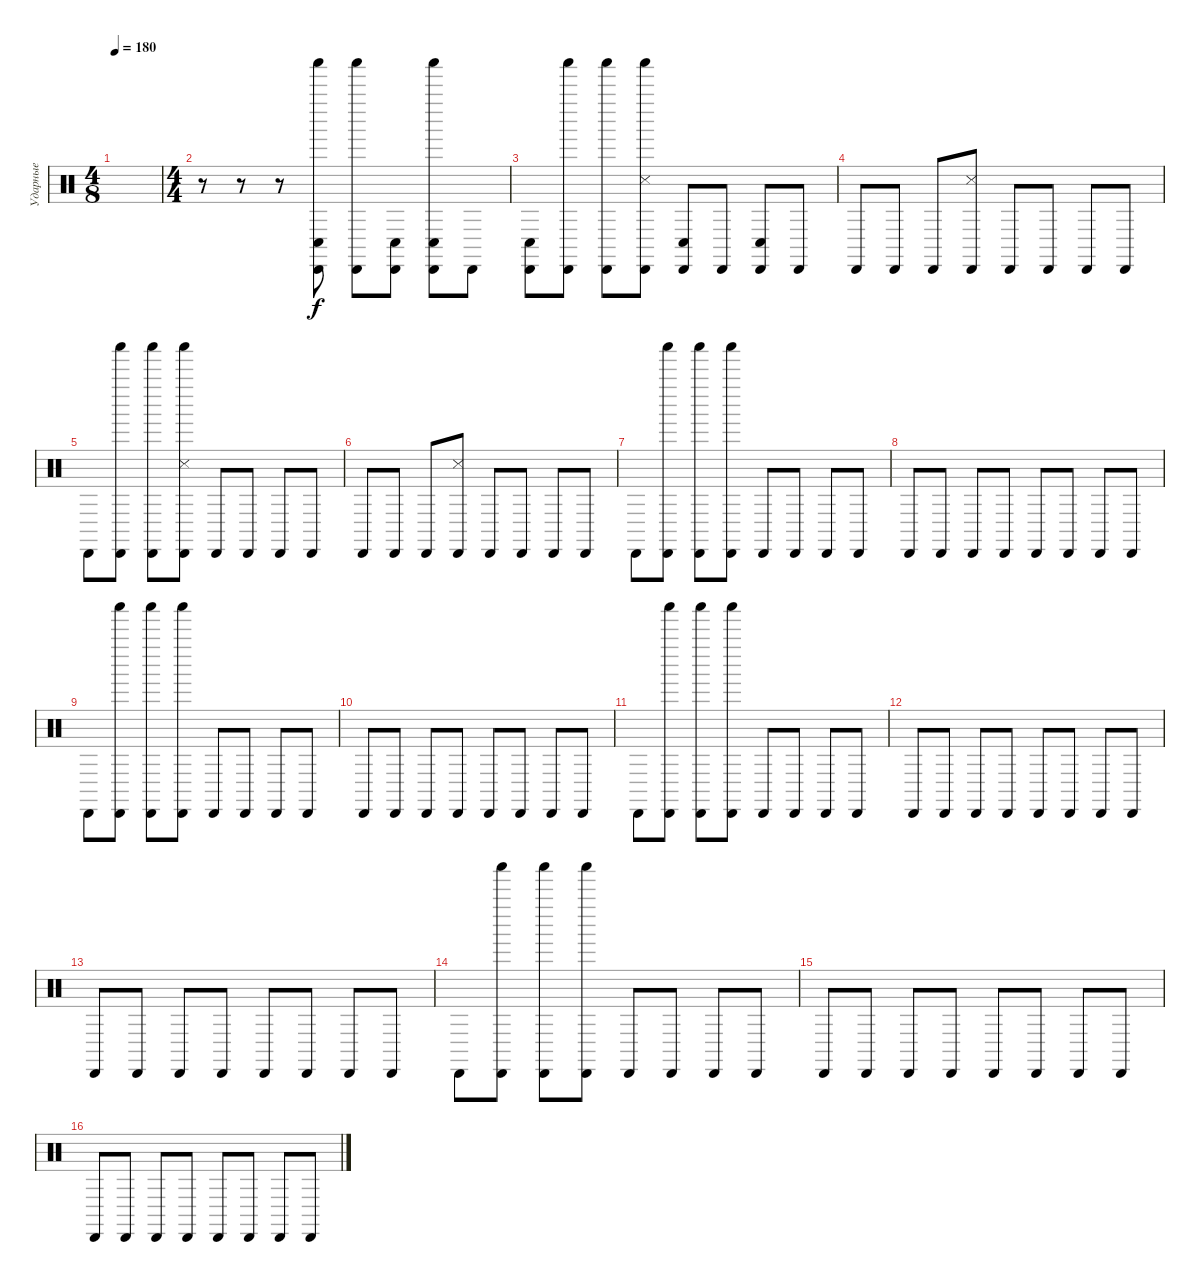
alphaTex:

\track ("Ударные" "Ударные") {instrument percussion}
\staff {score}
\articulation defaults
\ts (4 8)
\tempo 180
\clef neutral
\ks c
|
\ts (4 4)
r.8 r.8 r.8 ("Shaker (hit)" "Cabasa (hit)" "Conga low (hit)").8 ("Shaker (hit)" "Cabasa (hit)").8 ("Cabasa (hit)" "Conga low (hit)").8 ("Shaker (hit)" "Cabasa (hit)" "Conga low (hit)").8 "Cabasa (hit)".8 |
("Cabasa (hit)" "Conga low (hit)").8 ("Shaker (hit)" "Cabasa (hit)").8 ("Shaker (hit)" "Cabasa (hit)").8 ("Shaker (hit)" "Cabasa (hit)" "Snare (side stick) 3").8 ("Cabasa (hit)" "Conga low (hit)").8 "Cabasa (hit)".8 ("Cabasa (hit)" "Conga low (hit)").8 "Cabasa (hit)".8 |
"Cabasa (hit)".8 "Cabasa (hit)".8 "Cabasa (hit)".8 ("Cabasa (hit)" "Snare (side stick) 3").8 "Cabasa (hit)".8 "Cabasa (hit)".8 "Cabasa (hit)".8 "Cabasa (hit)".8 |
"Cabasa (hit)".8 ("Shaker (hit)" "Cabasa (hit)").8 ("Shaker (hit)" "Cabasa (hit)").8 ("Shaker (hit)" "Cabasa (hit)" "Snare (side stick) 3").8 "Cabasa (hit)".8 "Cabasa (hit)".8 "Cabasa (hit)".8 "Cabasa (hit)".8 |
"Cabasa (hit)".8 "Cabasa (hit)".8 "Cabasa (hit)".8 ("Cabasa (hit)" "Snare (side stick) 3").8 "Cabasa (hit)".8 "Cabasa (hit)".8 "Cabasa (hit)".8 "Cabasa (hit)".8 |
"Cabasa (hit)".8 ("Shaker (hit)" "Cabasa (hit)").8 ("Shaker (hit)" "Cabasa (hit)").8 ("Shaker (hit)" "Cabasa (hit)").8 "Cabasa (hit)".8 "Cabasa (hit)".8 "Cabasa (hit)".8 "Cabasa (hit)".8 |
"Cabasa (hit)".8 "Cabasa (hit)".8 "Cabasa (hit)".8 "Cabasa (hit)".8 "Cabasa (hit)".8 "Cabasa (hit)".8 "Cabasa (hit)".8 "Cabasa (hit)".8 |
"Cabasa (hit)".8 ("Shaker (hit)" "Cabasa (hit)").8 ("Shaker (hit)" "Cabasa (hit)").8 ("Shaker (hit)" "Cabasa (hit)").8 "Cabasa (hit)".8 "Cabasa (hit)".8 "Cabasa (hit)".8 "Cabasa (hit)".8 |
"Cabasa (hit)".8 "Cabasa (hit)".8 "Cabasa (hit)".8 "Cabasa (hit)".8 "Cabasa (hit)".8 "Cabasa (hit)".8 "Cabasa (hit)".8 "Cabasa (hit)".8 |
"Cabasa (hit)".8 ("Shaker (hit)" "Cabasa (hit)").8 ("Shaker (hit)" "Cabasa (hit)").8 ("Shaker (hit)" "Cabasa (hit)").8 "Cabasa (hit)".8 "Cabasa (hit)".8 "Cabasa (hit)".8 "Cabasa (hit)".8 |
"Cabasa (hit)".8 "Cabasa (hit)".8 "Cabasa (hit)".8 "Cabasa (hit)".8 "Cabasa (hit)".8 "Cabasa (hit)".8 "Cabasa (hit)".8 "Cabasa (hit)".8 |
"Cabasa (hit)".8 "Cabasa (hit)".8 "Cabasa (hit)".8 "Cabasa (hit)".8 "Cabasa (hit)".8 "Cabasa (hit)".8 "Cabasa (hit)".8 "Cabasa (hit)".8 |
"Cabasa (hit)".8 ("Shaker (hit)" "Cabasa (hit)").8 ("Shaker (hit)" "Cabasa (hit)").8 ("Shaker (hit)" "Cabasa (hit)").8 "Cabasa (hit)".8 "Cabasa (hit)".8 "Cabasa (hit)".8 "Cabasa (hit)".8 |
"Cabasa (hit)".8 "Cabasa (hit)".8 "Cabasa (hit)".8 "Cabasa (hit)".8 "Cabasa (hit)".8 "Cabasa (hit)".8 "Cabasa (hit)".8 "Cabasa (hit)".8 |
"Cabasa (hit)".8 "Cabasa (hit)".8 "Cabasa (hit)".8 "Cabasa (hit)".8 "Cabasa (hit)".8 "Cabasa (hit)".8 "Cabasa (hit)".8 "Cabasa (hit)".8
